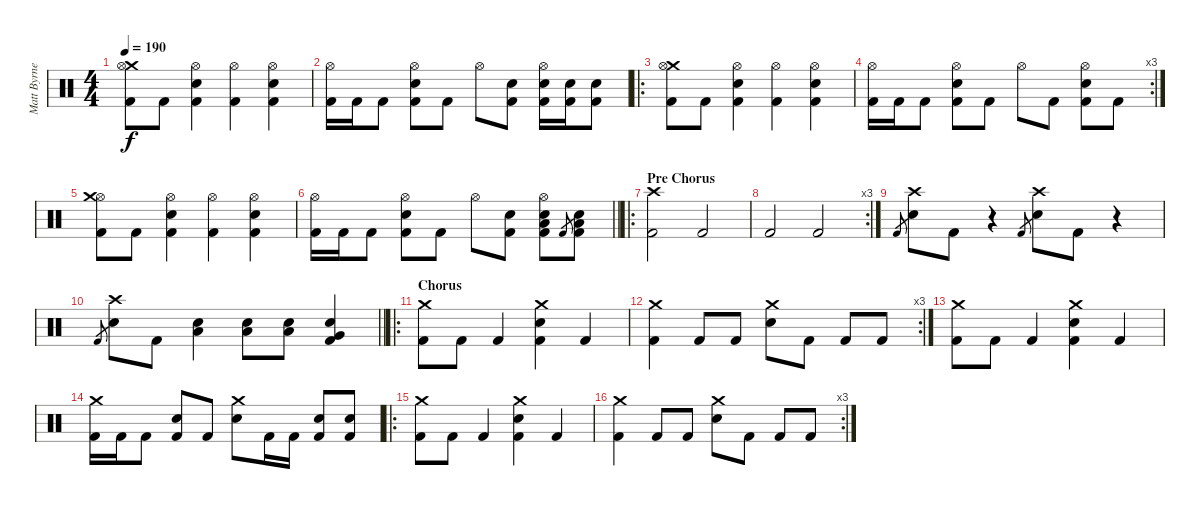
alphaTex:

\track ("Matt Byrne" "Matt Byrne") {instrument percussion}
\staff {score}
\articulation defaults
\ts (4 4)
\tempo 190
\clef neutral
\ks c
("Crash medium (hit)" "Hi-Hat (open)" "Kick (hit) 2").8{dy f} "Kick (hit) 2".8 ("Snare (hit) 2" "Hi-Hat (open)" "Kick (hit) 2").4 ("Hi-Hat (open)" "Kick (hit) 2").4 ("Snare (hit) 2" "Hi-Hat (open)" "Kick (hit) 2").4 |
("Hi-Hat (open)" "Kick (hit) 2").16 "Kick (hit) 2".16 "Kick (hit) 2".8 ("Snare (hit) 2" "Hi-Hat (open)" "Kick (hit) 2").8 "Kick (hit) 2".8 "Hi-Hat (open)".8 ("Snare (hit) 2" "Kick (hit) 2").8 ("Hi-Hat (open)" "Snare (hit) 2" "Kick (hit) 2").16 ("Snare (hit) 2" "Kick (hit) 2").16 ("Snare (hit) 2" "Kick (hit) 2").8 |
\ro
("Crash medium (hit)" "Hi-Hat (open)" "Kick (hit) 2").8 "Kick (hit) 2".8 ("Snare (hit) 2" "Hi-Hat (open)" "Kick (hit) 2").4 ("Hi-Hat (open)" "Kick (hit) 2").4 ("Snare (hit) 2" "Hi-Hat (open)" "Kick (hit) 2").4 |
\rc 3
("Hi-Hat (open)" "Kick (hit) 2").16 "Kick (hit) 2".16 "Kick (hit) 2".8 ("Snare (hit) 2" "Hi-Hat (open)" "Kick (hit) 2").8 "Kick (hit) 2".8 "Hi-Hat (open)".8 "Kick (hit) 2".8 ("Hi-Hat (open)" "Snare (hit) 2" "Kick (hit) 2").8 "Kick (hit) 2".8 |
("Hi-Hat (open)" "Crash medium (hit)" "Kick (hit) 2").8 "Kick (hit) 2".8 ("Snare (hit) 2" "Hi-Hat (open)" "Kick (hit) 2").4 ("Hi-Hat (open)" "Kick (hit) 2").4 ("Snare (hit) 2" "Hi-Hat (open)" "Kick (hit) 2").4 |
\barLineRight lightlight
("Hi-Hat (open)" "Kick (hit) 2").16 "Kick (hit) 2".16 "Kick (hit) 2".8 ("Snare (hit) 2" "Hi-Hat (open)" "Kick (hit) 2").8 "Kick (hit) 2".8 "Hi-Hat (open)".8 ("Snare (hit) 2" "Kick (hit) 2").8 ("Low Floor Tom (hit)" "Hi-Hat (open)" "Snare (hit) 2" "Kick (hit) 2").8 "Kick (hit) 2".8{gr} ("Low Floor Tom (hit)" "Snare (hit) 2" "Kick (hit) 2").8 |
\ro
\section ("" "Pre Chorus")
("Crash high (hit)" "Kick (hit) 2").2 "Kick (hit) 2".2 |
\rc 3 "Kick (hit) 2".2 "Kick (hit) 2".2
|
"Kick (hit) 2".8{gr} ("Crash high (hit)" "Snare (hit) 2").8 "Kick (hit) 2".8 r.4 "Kick (hit) 2".8{gr} ("Crash high (hit)" "Snare (hit) 2").8 "Kick (hit) 2".8 r.4 |
\barLineRight lightlight "Kick (hit) 2".8{gr}
("Crash high (hit)" "Snare (hit) 2").8 "Kick (hit) 2".8 ("Low Floor Tom (hit)" "Snare (hit) 2").4 ("Snare (hit) 2" "Low Floor Tom (hit)").8 ("Snare (hit) 2" "Low Tom (hit)").8 ("Kick (hit) 2" "Snare (hit) 2" "Very Low Tom (hit)").4 |
\ro
\section ("" "Chorus")
("Crash medium (hit)" "Kick (hit) 2").8 "Kick (hit) 2".8 "Kick (hit) 2".4 ("Crash medium (hit)" "Snare (hit) 2" "Kick (hit) 2").4 "Kick (hit) 2".4 |
\rc 3
("Crash medium (hit)" "Kick (hit) 2").4 "Kick (hit) 2".8 "Kick (hit) 2".8 ("Crash medium (hit)" "Snare (hit) 2").8 "Kick (hit) 2".8 "Kick (hit) 2".8 "Kick (hit) 2".8 |
("Crash medium (hit)" "Kick (hit) 2").8 "Kick (hit) 2".8 "Kick (hit) 2".4 ("Crash medium (hit)" "Snare (hit) 2" "Kick (hit) 2").4 "Kick (hit) 2".4 |
("Crash medium (hit)" "Kick (hit) 2").16 "Kick (hit) 2".16 "Kick (hit) 2".8 ("Snare (hit) 2" "Kick (hit) 2").8 "Kick (hit) 2".8 ("Snare (hit) 2" "Crash medium (hit)").8 "Kick (hit) 2".16 "Kick (hit) 2".16 ("Snare (hit) 2" "Kick (hit) 2").8 ("Snare (hit) 2" "Kick (hit) 2").8 |
\ro
("Crash medium (hit)" "Kick (hit) 2").8 "Kick (hit) 2".8 "Kick (hit) 2".4 ("Crash medium (hit)" "Snare (hit) 2" "Kick (hit) 2").4 "Kick (hit) 2".4 |
\rc 3
("Crash medium (hit)" "Kick (hit) 2").4 "Kick (hit) 2".8 "Kick (hit) 2".8 ("Crash medium (hit)" "Snare (hit) 2").8 "Kick (hit) 2".8 "Kick (hit) 2".8 "Kick (hit) 2".8
